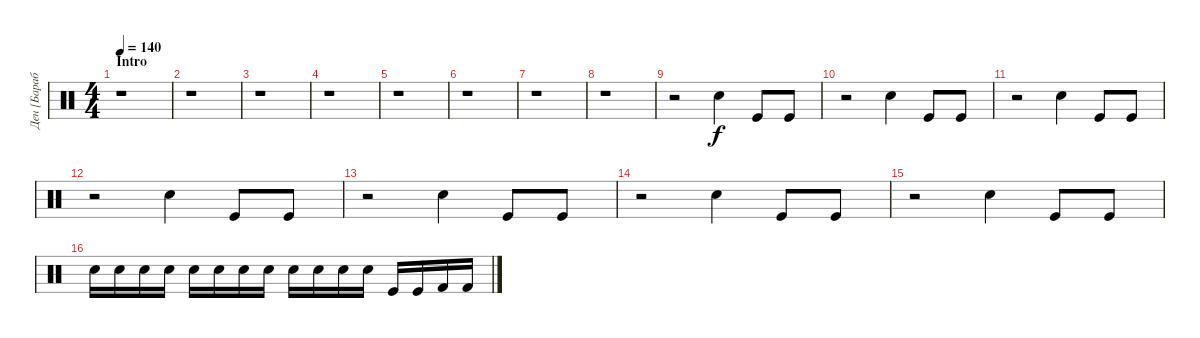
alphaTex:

\track ("Ден [Барабаны]" "Ден [Бараб") {instrument percussion}
\staff {score}
\articulation defaults
\ts (4 4)
\section ("" "Intro")
\tempo 140
\clef neutral
\ks c
r.1{dy f} |
r.1 |
r.1 |
r.1 |
r.1 |
r.1 |
r.1 |
r.1 |
r.2 "Electric Snare (hit)".4 "Kick (hit)".8 "Kick (hit)".8 |
r.2 "Electric Snare (hit)".4 "Kick (hit)".8 "Kick (hit)".8 |
r.2 "Electric Snare (hit)".4 "Kick (hit)".8 "Kick (hit)".8 |
r.2 "Electric Snare (hit)".4 "Kick (hit)".8 "Kick (hit)".8 |
r.2 "Electric Snare (hit)".4 "Kick (hit)".8 "Kick (hit)".8 |
r.2 "Electric Snare (hit)".4 "Kick (hit)".8 "Kick (hit)".8 |
r.2 "Electric Snare (hit)".4 "Kick (hit)".8 "Kick (hit)".8 |
"Electric Snare (hit)".16 "Electric Snare (hit)".16 "Electric Snare (hit)".16 "Electric Snare (hit)".16 "Electric Snare (hit)".16 "Electric Snare (hit)".16 "Electric Snare (hit)".16 "Electric Snare (hit)".16 "Electric Snare (hit)".16 "Electric Snare (hit)".16 "Electric Snare (hit)".16 "Electric Snare (hit)".16 "Kick (hit)".16 "Kick (hit)".16 "Kick (hit) 2".16 "Kick (hit) 2".16
